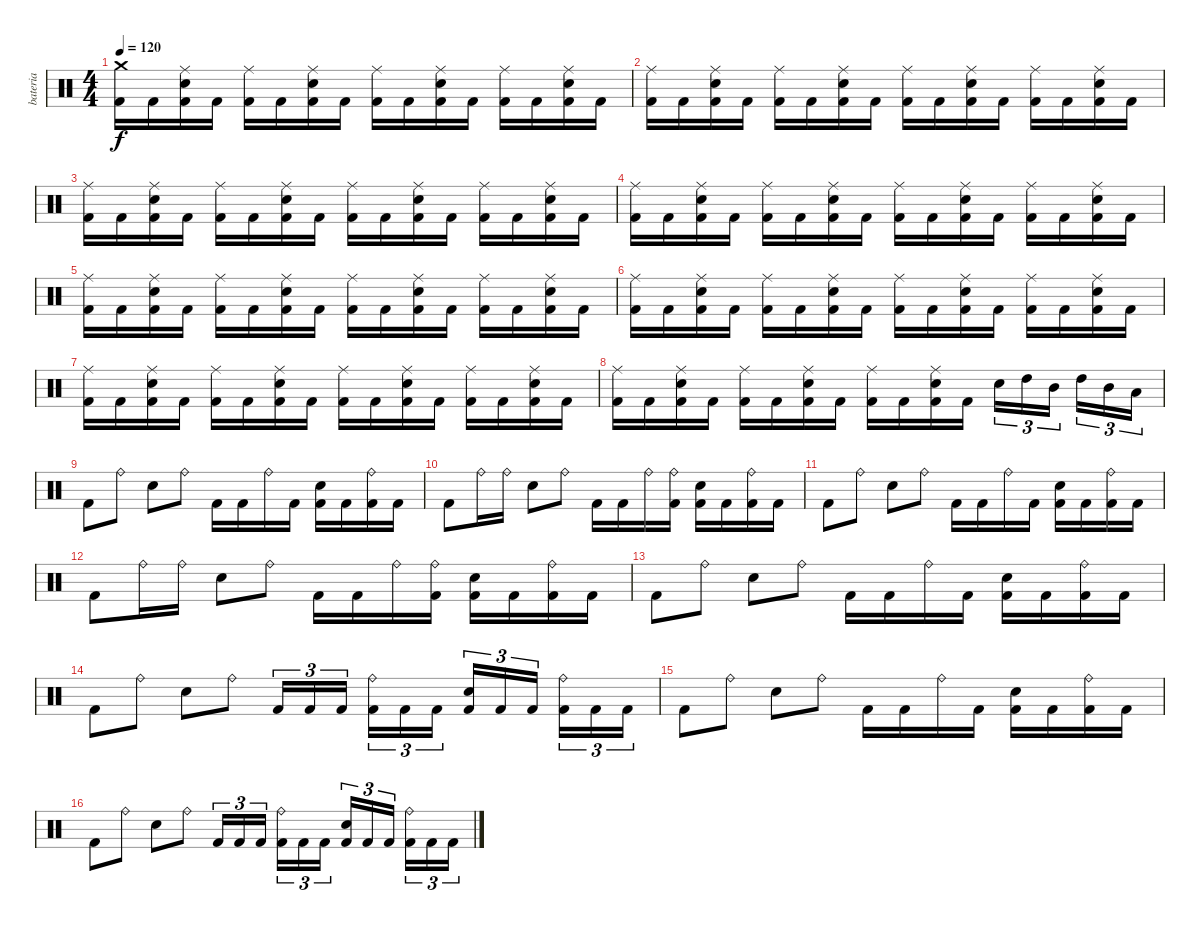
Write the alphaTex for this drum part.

\track ("bateria" "bateria") {instrument percussion}
\staff {score}
\articulation defaults
\ts (4 4)
\tempo 120
\clef neutral
\ks c
("Crash medium (hit)" "Kick (hit) 2").16{dy f} "Kick (hit) 2".16 ("Ride (middle)" "Electric Snare (hit)" "Kick (hit) 2").16 "Kick (hit) 2".16 ("Ride (middle)" "Kick (hit) 2").16 "Kick (hit) 2".16 ("Ride (middle)" "Electric Snare (hit)" "Kick (hit) 2").16 "Kick (hit) 2".16 ("Ride (middle)" "Kick (hit) 2").16 "Kick (hit) 2".16 ("Ride (middle)" "Electric Snare (hit)" "Kick (hit) 2").16 "Kick (hit) 2".16 ("Ride (middle)" "Kick (hit) 2").16 "Kick (hit) 2".16 ("Ride (middle)" "Electric Snare (hit)" "Kick (hit) 2").16 "Kick (hit) 2".16 |
("Ride (middle)" "Kick (hit) 2").16 "Kick (hit) 2".16 ("Ride (middle)" "Electric Snare (hit)" "Kick (hit) 2").16 "Kick (hit) 2".16 ("Ride (middle)" "Kick (hit) 2").16 "Kick (hit) 2".16 ("Ride (middle)" "Electric Snare (hit)" "Kick (hit) 2").16 "Kick (hit) 2".16 ("Ride (middle)" "Kick (hit) 2").16 "Kick (hit) 2".16 ("Ride (middle)" "Electric Snare (hit)" "Kick (hit) 2").16 "Kick (hit) 2".16 ("Ride (middle)" "Kick (hit) 2").16 "Kick (hit) 2".16 ("Ride (middle)" "Electric Snare (hit)" "Kick (hit) 2").16 "Kick (hit) 2".16 |
("Ride (middle)" "Kick (hit) 2").16 "Kick (hit) 2".16 ("Ride (middle)" "Electric Snare (hit)" "Kick (hit) 2").16 "Kick (hit) 2".16 ("Ride (middle)" "Kick (hit) 2").16 "Kick (hit) 2".16 ("Ride (middle)" "Electric Snare (hit)" "Kick (hit) 2").16 "Kick (hit) 2".16 ("Ride (middle)" "Kick (hit) 2").16 "Kick (hit) 2".16 ("Ride (middle)" "Electric Snare (hit)" "Kick (hit) 2").16 "Kick (hit) 2".16 ("Ride (middle)" "Kick (hit) 2").16 "Kick (hit) 2".16 ("Ride (middle)" "Electric Snare (hit)" "Kick (hit) 2").16 "Kick (hit) 2".16 |
("Ride (middle)" "Kick (hit) 2").16 "Kick (hit) 2".16 ("Ride (middle)" "Electric Snare (hit)" "Kick (hit) 2").16 "Kick (hit) 2".16 ("Ride (middle)" "Kick (hit) 2").16 "Kick (hit) 2".16 ("Ride (middle)" "Electric Snare (hit)" "Kick (hit) 2").16 "Kick (hit) 2".16 ("Ride (middle)" "Kick (hit) 2").16 "Kick (hit) 2".16 ("Ride (middle)" "Electric Snare (hit)" "Kick (hit) 2").16 "Kick (hit) 2".16 ("Ride (middle)" "Kick (hit) 2").16 "Kick (hit) 2".16 ("Ride (middle)" "Electric Snare (hit)" "Kick (hit) 2").16 "Kick (hit) 2".16 |
("Ride (middle)" "Kick (hit) 2").16 "Kick (hit) 2".16 ("Ride (middle)" "Electric Snare (hit)" "Kick (hit) 2").16 "Kick (hit) 2".16 ("Ride (middle)" "Kick (hit) 2").16 "Kick (hit) 2".16 ("Ride (middle)" "Electric Snare (hit)" "Kick (hit) 2").16 "Kick (hit) 2".16 ("Ride (middle)" "Kick (hit) 2").16 "Kick (hit) 2".16 ("Ride (middle)" "Electric Snare (hit)" "Kick (hit) 2").16 "Kick (hit) 2".16 ("Ride (middle)" "Kick (hit) 2").16 "Kick (hit) 2".16 ("Ride (middle)" "Electric Snare (hit)" "Kick (hit) 2").16 "Kick (hit) 2".16 |
("Ride (middle)" "Kick (hit) 2").16 "Kick (hit) 2".16 ("Ride (middle)" "Electric Snare (hit)" "Kick (hit) 2").16 "Kick (hit) 2".16 ("Ride (middle)" "Kick (hit) 2").16 "Kick (hit) 2".16 ("Ride (middle)" "Electric Snare (hit)" "Kick (hit) 2").16 "Kick (hit) 2".16 ("Ride (middle)" "Kick (hit) 2").16 "Kick (hit) 2".16 ("Ride (middle)" "Electric Snare (hit)" "Kick (hit) 2").16 "Kick (hit) 2".16 ("Ride (middle)" "Kick (hit) 2").16 "Kick (hit) 2".16 ("Ride (middle)" "Electric Snare (hit)" "Kick (hit) 2").16 "Kick (hit) 2".16 |
("Ride (middle)" "Kick (hit) 2").16 "Kick (hit) 2".16 ("Ride (middle)" "Electric Snare (hit)" "Kick (hit) 2").16 "Kick (hit) 2".16 ("Ride (middle)" "Kick (hit) 2").16 "Kick (hit) 2".16 ("Ride (middle)" "Electric Snare (hit)" "Kick (hit) 2").16 "Kick (hit) 2".16 ("Ride (middle)" "Kick (hit) 2").16 "Kick (hit) 2".16 ("Ride (middle)" "Electric Snare (hit)" "Kick (hit) 2").16 "Kick (hit) 2".16 ("Ride (middle)" "Kick (hit) 2").16 "Kick (hit) 2".16 ("Ride (middle)" "Electric Snare (hit)" "Kick (hit) 2").16 "Kick (hit) 2".16 |
("Ride (middle)" "Kick (hit) 2").16 "Kick (hit) 2".16 ("Ride (middle)" "Electric Snare (hit)" "Kick (hit) 2").16 "Kick (hit) 2".16 ("Ride (middle)" "Kick (hit) 2").16 "Kick (hit) 2".16 ("Ride (middle)" "Electric Snare (hit)" "Kick (hit) 2").16 "Kick (hit) 2".16 ("Ride (middle)" "Kick (hit) 2").16 "Kick (hit) 2".16 ("Ride (middle)" "Electric Snare (hit)" "Kick (hit) 2").16 "Kick (hit) 2".16 "Electric Snare (hit)".16{tu (3 2)} "High Tom (hit)".16{tu (3 2)} "Mid Tom (hit)".16{tu (3 2)} "High Tom (hit)".16{tu (3 2)} "Mid Tom (hit)".16{tu (3 2)} "Low Tom (hit)".16{tu (3 2)} |
"Kick (hit) 2".8 "Ride (bell)".8 "Electric Snare (hit)".8 "Ride (bell)".8 "Kick (hit) 2".16 "Kick (hit) 2".16 "Ride (bell)".16 "Kick (hit) 2".16 ("Electric Snare (hit)" "Kick (hit) 2").16 "Kick (hit) 2".16 ("Ride (bell)" "Kick (hit) 2").16 "Kick (hit) 2".16 |
"Kick (hit) 2".8 "Ride (bell)".16 "Ride (bell)".16 "Electric Snare (hit)".8 "Ride (bell)".8 "Kick (hit) 2".16 "Kick (hit) 2".16 "Ride (bell)".16 ("Ride (bell)" "Kick (hit) 2").16 ("Electric Snare (hit)" "Kick (hit) 2").16 "Kick (hit) 2".16 ("Ride (bell)" "Kick (hit) 2").16 "Kick (hit) 2".16 |
"Kick (hit) 2".8 "Ride (bell)".8 "Electric Snare (hit)".8 "Ride (bell)".8 "Kick (hit) 2".16 "Kick (hit) 2".16 "Ride (bell)".16 "Kick (hit) 2".16 ("Electric Snare (hit)" "Kick (hit) 2").16 "Kick (hit) 2".16 ("Ride (bell)" "Kick (hit) 2").16 "Kick (hit) 2".16 |
"Kick (hit) 2".8 "Ride (bell)".16 "Ride (bell)".16 "Electric Snare (hit)".8 "Ride (bell)".8 "Kick (hit) 2".16 "Kick (hit) 2".16 "Ride (bell)".16 ("Ride (bell)" "Kick (hit) 2").16 ("Electric Snare (hit)" "Kick (hit) 2").16 "Kick (hit) 2".16 ("Ride (bell)" "Kick (hit) 2").16 "Kick (hit) 2".16 |
"Kick (hit) 2".8 "Ride (bell)".8 "Electric Snare (hit)".8 "Ride (bell)".8 "Kick (hit) 2".16 "Kick (hit) 2".16 "Ride (bell)".16 "Kick (hit) 2".16 ("Electric Snare (hit)" "Kick (hit) 2").16 "Kick (hit) 2".16 ("Ride (bell)" "Kick (hit) 2").16 "Kick (hit) 2".16 |
"Kick (hit) 2".8 "Ride (bell)".8 "Electric Snare (hit)".8 "Ride (bell)".8 "Kick (hit) 2".16{tu (3 2)} "Kick (hit) 2".16{tu (3 2)} "Kick (hit) 2".16{tu (3 2)} ("Ride (bell)" "Kick (hit) 2").16{tu (3 2)} "Kick (hit) 2".16{tu (3 2)} "Kick (hit) 2".16{tu (3 2)} ("Electric Snare (hit)" "Kick (hit) 2").16{tu (3 2)} "Kick (hit) 2".16{tu (3 2)} "Kick (hit) 2".16{tu (3 2)} ("Ride (bell)" "Kick (hit) 2").16{tu (3 2)} "Kick (hit) 2".16{tu (3 2)} "Kick (hit) 2".16{tu (3 2)} |
"Kick (hit) 2".8 "Ride (bell)".8 "Electric Snare (hit)".8 "Ride (bell)".8 "Kick (hit) 2".16 "Kick (hit) 2".16 "Ride (bell)".16 "Kick (hit) 2".16 ("Electric Snare (hit)" "Kick (hit) 2").16 "Kick (hit) 2".16 ("Ride (bell)" "Kick (hit) 2").16 "Kick (hit) 2".16 |
"Kick (hit) 2".8 "Ride (bell)".8 "Electric Snare (hit)".8 "Ride (bell)".8 "Kick (hit) 2".16{tu (3 2)} "Kick (hit) 2".16{tu (3 2)} "Kick (hit) 2".16{tu (3 2)} ("Ride (bell)" "Kick (hit) 2").16{tu (3 2)} "Kick (hit) 2".16{tu (3 2)} "Kick (hit) 2".16{tu (3 2)} ("Electric Snare (hit)" "Kick (hit) 2").16{tu (3 2)} "Kick (hit) 2".16{tu (3 2)} "Kick (hit) 2".16{tu (3 2)} ("Ride (bell)" "Kick (hit) 2").16{tu (3 2)} "Kick (hit) 2".16{tu (3 2)} "Kick (hit) 2".16{tu (3 2)}
